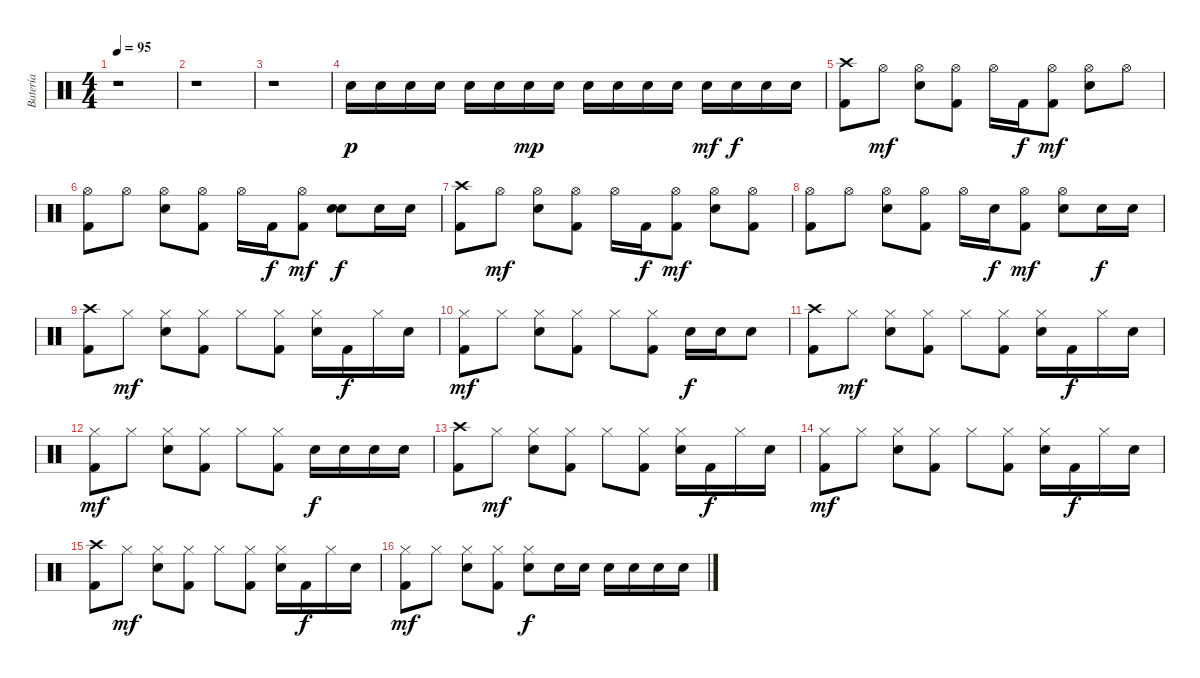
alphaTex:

\track ("Batería" "Batería") {instrument percussion}
\staff {score}
\articulation defaults
\ts (4 4)
\tempo 95
\clef neutral
\ks c
r.1{dy p} |
r.1 |
r.1 |
"Snare (hit) 2".16 "Snare (hit) 2".16 "Snare (hit) 2".16 "Snare (hit) 2".16 "Snare (hit) 2".16 "Snare (hit) 2".16 "Snare (hit) 2".16{dy mp} "Snare (hit) 2".16 "Snare (hit) 2".16 "Snare (hit) 2".16 "Snare (hit) 2".16 "Snare (hit) 2".16 "Snare (hit) 2".16{dy mf} "Snare (hit) 2".16{dy f} "Snare (hit) 2".16 "Snare (hit) 2".16 |
("Crash high (hit)" "Kick (hit) 2").8 "Hi-Hat (open)".8{dy mf} ("Hi-Hat (open)" "Snare (hit) 2").8 ("Hi-Hat (open)" "Kick (hit) 2").8 "Hi-Hat (open)".16 "Kick (hit) 2".16{dy f} ("Hi-Hat (open)" "Kick (hit) 2").8{dy mf} ("Hi-Hat (open)" "Snare (hit) 2").8 "Hi-Hat (open)".8 |
("Hi-Hat (open)" "Kick (hit) 2").8 "Hi-Hat (open)".8 ("Hi-Hat (open)" "Snare (hit) 2").8 ("Hi-Hat (open)" "Kick (hit) 2").8 "Hi-Hat (open)".16 "Kick (hit) 2".16{dy f} ("Hi-Hat (open)" "Kick (hit) 2").8{dy mf} ("Snare (hit) 2" "Snare (hit) 2").8{bd 240 dy f} "Snare (hit) 2".16 "Snare (hit) 2".16 |
("Crash high (hit)" "Kick (hit) 2").8 "Hi-Hat (open)".8{dy mf} ("Hi-Hat (open)" "Snare (hit) 2").8 ("Hi-Hat (open)" "Kick (hit) 2").8 "Hi-Hat (open)".16 "Kick (hit) 2".16{dy f} ("Hi-Hat (open)" "Kick (hit) 2").8{dy mf} ("Hi-Hat (open)" "Snare (hit) 2").8 ("Hi-Hat (open)" "Kick (hit) 2").8 |
("Hi-Hat (open)" "Kick (hit) 2").8 "Hi-Hat (open)".8 ("Hi-Hat (open)" "Snare (hit) 2").8 ("Hi-Hat (open)" "Kick (hit) 2").8 "Hi-Hat (open)".16 "Snare (hit) 2".16{dy f} ("Hi-Hat (open)" "Kick (hit) 2").8{dy mf} ("Hi-Hat (open)" "Snare (hit) 2").8 "Snare (hit) 2".16{dy f} "Snare (hit) 2".16 |
("Crash high (hit)" "Kick (hit) 2").8 "Hi-Hat (closed)".8{dy mf} ("Hi-Hat (closed)" "Snare (hit) 2").8 ("Hi-Hat (closed)" "Kick (hit) 2").8 "Hi-Hat (closed)".8 ("Hi-Hat (closed)" "Kick (hit) 2").8 ("Hi-Hat (closed)" "Snare (hit) 2").16 "Kick (hit) 2".16{dy f} "Hi-Hat (closed)".16 "Snare (hit) 2".16 |
("Hi-Hat (closed)" "Kick (hit) 2").8{dy mf} "Hi-Hat (closed)".8 ("Hi-Hat (closed)" "Snare (hit) 2").8 ("Hi-Hat (closed)" "Kick (hit) 2").8 "Hi-Hat (closed)".8 ("Hi-Hat (closed)" "Kick (hit) 2").8 "Snare (hit) 2".16{dy f} "Snare (hit) 2".16 "Snare (hit) 2".8 |
("Crash high (hit)" "Kick (hit) 2").8 "Hi-Hat (closed)".8{dy mf} ("Hi-Hat (closed)" "Snare (hit) 2").8 ("Hi-Hat (closed)" "Kick (hit) 2").8 "Hi-Hat (closed)".8 ("Hi-Hat (closed)" "Kick (hit) 2").8 ("Hi-Hat (closed)" "Snare (hit) 2").16 "Kick (hit) 2".16{dy f} "Hi-Hat (closed)".16 "Snare (hit) 2".16 |
("Hi-Hat (closed)" "Kick (hit) 2").8{dy mf} "Hi-Hat (closed)".8 ("Hi-Hat (closed)" "Snare (hit) 2").8 ("Hi-Hat (closed)" "Kick (hit) 2").8 "Hi-Hat (closed)".8 ("Hi-Hat (closed)" "Kick (hit) 2").8 "Snare (hit) 2".16{dy f} "Snare (hit) 2".16 "Snare (hit) 2".16 "Snare (hit) 2".16 |
("Crash high (hit)" "Kick (hit) 2").8 "Hi-Hat (closed)".8{dy mf} ("Hi-Hat (closed)" "Snare (hit) 2").8 ("Hi-Hat (closed)" "Kick (hit) 2").8 "Hi-Hat (closed)".8 ("Hi-Hat (closed)" "Kick (hit) 2").8 ("Hi-Hat (closed)" "Snare (hit) 2").16 "Kick (hit) 2".16{dy f} "Hi-Hat (closed)".16 "Snare (hit) 2".16 |
("Hi-Hat (closed)" "Kick (hit) 2").8{dy mf} "Hi-Hat (closed)".8 ("Hi-Hat (closed)" "Snare (hit) 2").8 ("Hi-Hat (closed)" "Kick (hit) 2").8 "Hi-Hat (closed)".8 ("Hi-Hat (closed)" "Kick (hit) 2").8 ("Hi-Hat (closed)" "Snare (hit) 2").16 "Kick (hit) 2".16{dy f} "Hi-Hat (closed)".16 "Snare (hit) 2".16 |
("Crash high (hit)" "Kick (hit) 2").8 "Hi-Hat (closed)".8{dy mf} ("Hi-Hat (closed)" "Snare (hit) 2").8 ("Hi-Hat (closed)" "Kick (hit) 2").8 "Hi-Hat (closed)".8 ("Hi-Hat (closed)" "Kick (hit) 2").8 ("Hi-Hat (closed)" "Snare (hit) 2").16 "Kick (hit) 2".16{dy f} "Hi-Hat (closed)".16 "Snare (hit) 2".16 |
("Hi-Hat (closed)" "Kick (hit) 2").8{dy mf} "Hi-Hat (closed)".8 ("Hi-Hat (closed)" "Snare (hit) 2").8 ("Hi-Hat (closed)" "Kick (hit) 2").8 ("Hi-Hat (closed)" "Snare (hit) 2").8{dy f} "Snare (hit) 2".16 "Snare (hit) 2".16 "Snare (hit) 2".16 "Snare (hit) 2".16 "Snare (hit) 2".16 "Snare (hit) 2".16
